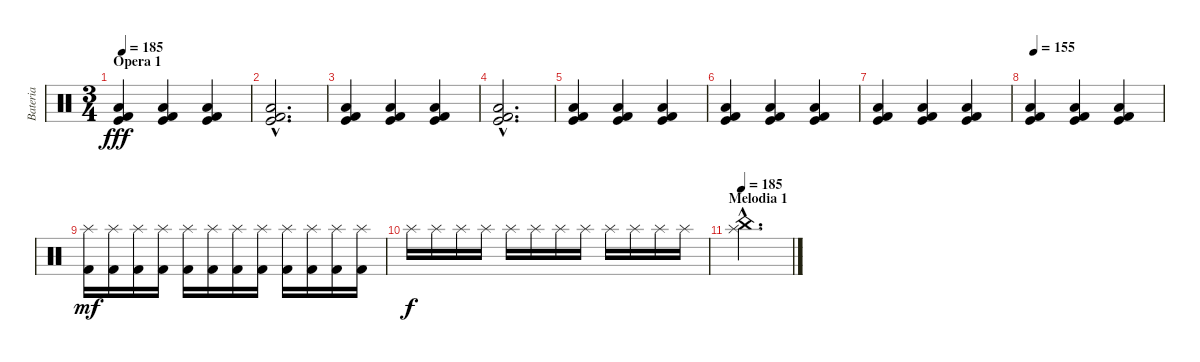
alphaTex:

\track ("Bateria" "Bateria") {instrument percussion}
\staff {score}
\articulation defaults
\ts (3 4)
\section ("" "Opera 1")
\tempo 185
\tempo 180
\tempo 185
\clef neutral
\ks c
("Low Floor Tom (hit)" "Kick (hit) 2" "Kick (hit)").4{dy fff} ("Low Floor Tom (hit)" "Kick (hit) 2" "Kick (hit)").4 ("Low Floor Tom (hit)" "Kick (hit) 2" "Kick (hit)").4 |
("Low Floor Tom (hit)"{hac} "Kick (hit)"{hac} "Kick (hit) 2"{hac}).2{d} |
("Low Floor Tom (hit)" "Kick (hit) 2" "Kick (hit)").4 ("Low Floor Tom (hit)" "Kick (hit) 2" "Kick (hit)").4 ("Low Floor Tom (hit)" "Kick (hit) 2" "Kick (hit)").4 |
("Low Floor Tom (hit)"{hac} "Kick (hit)"{hac} "Kick (hit) 2"{hac}).2{d} |
("Low Floor Tom (hit)" "Kick (hit) 2" "Kick (hit)").4 ("Low Floor Tom (hit)" "Kick (hit) 2" "Kick (hit)").4 ("Low Floor Tom (hit)" "Kick (hit) 2" "Kick (hit)").4 |
("Low Floor Tom (hit)" "Kick (hit) 2" "Kick (hit)").4 ("Low Floor Tom (hit)" "Kick (hit) 2" "Kick (hit)").4 ("Low Floor Tom (hit)" "Kick (hit) 2" "Kick (hit)").4 |
("Low Floor Tom (hit)" "Kick (hit) 2" "Kick (hit)").4 ("Low Floor Tom (hit)" "Kick (hit) 2" "Kick (hit)").4 ("Low Floor Tom (hit)" "Kick (hit) 2" "Kick (hit)").4 |
\tempo 155
("Low Floor Tom (hit)" "Kick (hit) 2" "Kick (hit)").4 ("Low Floor Tom (hit)" "Kick (hit) 2" "Kick (hit)").4 ("Low Floor Tom (hit)" "Kick (hit) 2" "Kick (hit)").4 |
("Kick (hit) 2" "Splash (hit)").16{dy mf} ("Kick (hit) 2" "Splash (hit)").16 ("Kick (hit) 2" "Splash (hit)").16 ("Kick (hit) 2" "Splash (hit)").16 ("Kick (hit) 2" "Splash (hit)").16 ("Kick (hit) 2" "Splash (hit)").16 ("Kick (hit) 2" "Splash (hit)").16 ("Kick (hit) 2" "Splash (hit)").16 ("Kick (hit) 2" "Splash (hit)").16 ("Kick (hit) 2" "Splash (hit)").16 ("Kick (hit) 2" "Splash (hit)").16 ("Kick (hit) 2" "Splash (hit)").16 |
"Splash (hit)".16{dy f} "Splash (hit)".16 "Splash (hit)".16 "Splash (hit)".16 "Splash (hit)".16 "Splash (hit)".16 "Splash (hit)".16 "Splash (hit)".16 "Splash (hit)".16 "Splash (hit)".16 "Splash (hit)".16 "Splash (hit)".16 |
\section ("" "Melodia 1")
\tempo 185
("Splash (hit)"{hac} "China (hit)"{hac}).2{d}
